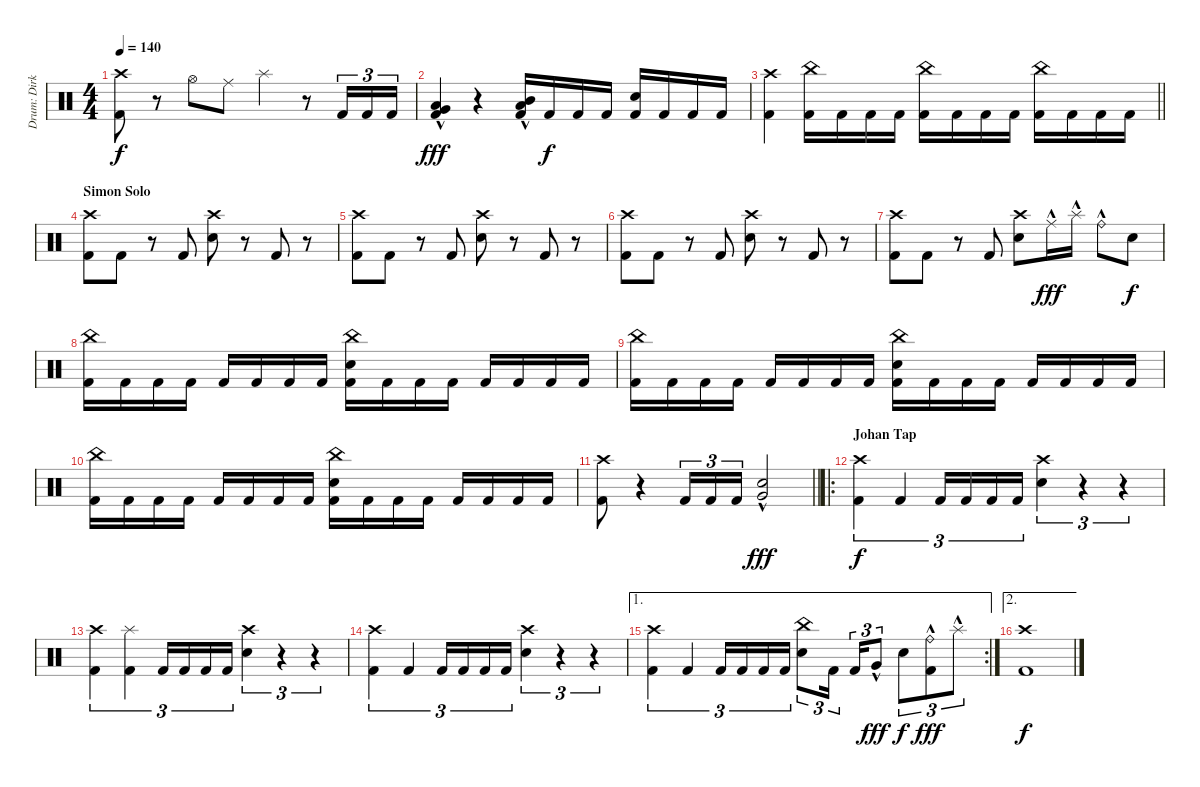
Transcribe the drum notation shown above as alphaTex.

\track ("Drum: Dirk" "Drum: Dirk") {instrument percussion}
\staff {score}
\articulation defaults
\ts (4 4)
\section ("" "")
\tempo 140
\clef neutral
\ks c
("Crash high (hit)" "Kick (hit) 2").8{dy f} r.8 "Hi-Hat (open)".8 "Ride (middle)".8 "Splash (hit)".4 r.8 "Kick (hit) 2".16{tu (3 2)} "Kick (hit) 2".16{tu (3 2)} "Kick (hit) 2".16{tu (3 2)} |
("Low Floor Tom (hit)"{hac} "Very Low Tom (hit)"{hac} "Kick (hit) 2").4{dy fff} r.4 ("Mid Tom (hit)"{hac} "Low Tom (hit)"{hac} "Kick (hit) 2").16 "Kick (hit) 2".16{dy f} "Kick (hit) 2".16 "Kick (hit) 2".16 ("Electric Snare (hit)" "Kick (hit) 2").16 "Kick (hit) 2".16 "Kick (hit) 2".16 "Kick (hit) 2".16 |
\barLineRight lightlight
("Crash high (hit)" "Kick (hit) 2").4 ("China (hit)" "Kick (hit) 2").16 "Kick (hit) 2".16 "Kick (hit) 2".16 "Kick (hit) 2".16 ("China (hit)" "Kick (hit) 2").16 "Kick (hit) 2".16 "Kick (hit) 2".16 "Kick (hit) 2".16 ("China (hit)" "Kick (hit) 2").16 "Kick (hit) 2".16 "Kick (hit) 2".16 "Kick (hit) 2".16 |
\section ("" "Simon Solo")
("Crash high (hit)" "Kick (hit) 2").8 "Kick (hit) 2".8 r.8 "Kick (hit) 2".8 ("Crash high (hit)" "Electric Snare (hit)").8 r.8 "Kick (hit) 2".8 r.8 |
("Crash high (hit)" "Kick (hit) 2").8 "Kick (hit) 2".8 r.8 "Kick (hit) 2".8 ("Crash high (hit)" "Electric Snare (hit)").8 r.8 "Kick (hit) 2".8 r.8 |
("Crash high (hit)" "Kick (hit) 2").8 "Kick (hit) 2".8 r.8 "Kick (hit) 2".8 ("Crash high (hit)" "Electric Snare (hit)").8 r.8 "Kick (hit) 2".8 r.8 |
("Crash high (hit)" "Kick (hit) 2").8 "Kick (hit) 2".8 r.8 "Kick (hit) 2".8 ("Crash high (hit)" "Electric Snare (hit)").8 "Ride (middle)"{hac}.16{dy fff} "Splash (hit)"{hac}.16 "Ride (bell)"{hac}.8 "Electric Snare (hit)".8{dy f} |
("China (hit)" "Kick (hit) 2").16 "Kick (hit) 2".16 "Kick (hit) 2".16 "Kick (hit) 2".16 "Kick (hit) 2".16 "Kick (hit) 2".16 "Kick (hit) 2".16 "Kick (hit) 2".16 ("China (hit)" "Electric Snare (hit)" "Kick (hit) 2").16 "Kick (hit) 2".16 "Kick (hit) 2".16 "Kick (hit) 2".16 "Kick (hit) 2".16 "Kick (hit) 2".16 "Kick (hit) 2".16 "Kick (hit) 2".16 |
("China (hit)" "Kick (hit) 2").16 "Kick (hit) 2".16 "Kick (hit) 2".16 "Kick (hit) 2".16 "Kick (hit) 2".16 "Kick (hit) 2".16 "Kick (hit) 2".16 "Kick (hit) 2".16 ("China (hit)" "Electric Snare (hit)" "Kick (hit) 2").16 "Kick (hit) 2".16 "Kick (hit) 2".16 "Kick (hit) 2".16 "Kick (hit) 2".16 "Kick (hit) 2".16 "Kick (hit) 2".16 "Kick (hit) 2".16 |
("China (hit)" "Kick (hit) 2").16 "Kick (hit) 2".16 "Kick (hit) 2".16 "Kick (hit) 2".16 "Kick (hit) 2".16 "Kick (hit) 2".16 "Kick (hit) 2".16 "Kick (hit) 2".16 ("China (hit)" "Electric Snare (hit)" "Kick (hit) 2").16 "Kick (hit) 2".16 "Kick (hit) 2".16 "Kick (hit) 2".16 "Kick (hit) 2".16 "Kick (hit) 2".16 "Kick (hit) 2".16 "Kick (hit) 2".16 |
\barLineRight lightlight
("Crash high (hit)" "Kick (hit) 2").8 r.4 "Kick (hit) 2".16{tu (3 2)} "Kick (hit) 2".16{tu (3 2)} "Kick (hit) 2".16{tu (3 2)} ("Electric Snare (hit)" "Very Low Tom (hit)"{hac}).2{dy fff} |
\ro
\section ("" "Johan Tap")
("Crash high (hit)" "Kick (hit) 2").4{tu (3 2) dy f} "Kick (hit) 2".4{tu (3 2)} "Kick (hit) 2".16{tu (3 2)} "Kick (hit) 2".16{tu (3 2)} "Kick (hit) 2".16{tu (3 2)} "Kick (hit) 2".16{tu (3 2)} ("Crash high (hit)" "Electric Snare (hit)").4{tu (3 2)} r.4{tu (3 2)} r.4{tu (3 2)} |
("Crash high (hit)" "Kick (hit) 2").4{tu (3 2)} ("Splash (hit)" "Kick (hit) 2").4{tu (3 2)} "Kick (hit) 2".16{tu (3 2)} "Kick (hit) 2".16{tu (3 2)} "Kick (hit) 2".16{tu (3 2)} "Kick (hit) 2".16{tu (3 2)} ("Crash high (hit)" "Electric Snare (hit)").4{tu (3 2)} r.4{tu (3 2)} r.4{tu (3 2)} |
("Crash high (hit)" "Kick (hit) 2").4{tu (3 2)} "Kick (hit) 2".4{tu (3 2)} "Kick (hit) 2".16{tu (3 2)} "Kick (hit) 2".16{tu (3 2)} "Kick (hit) 2".16{tu (3 2)} "Kick (hit) 2".16{tu (3 2)} ("Crash high (hit)" "Electric Snare (hit)").4{tu (3 2)} r.4{tu (3 2)} r.4{tu (3 2)} |
\ae 1
\rc 2
("Crash high (hit)" "Kick (hit) 2").4{tu (3 2)} "Kick (hit) 2".4{tu (3 2)} "Kick (hit) 2".16{tu (3 2)} "Kick (hit) 2".16{tu (3 2)} "Kick (hit) 2".16{tu (3 2)} "Kick (hit) 2".16{tu (3 2)} ("China (hit)" "Electric Snare (hit)").8{tu (3 2)} "Kick (hit) 2".16{tu (3 2) beam splitsecondary} "Kick (hit) 2".16{tu (3 2)} "Very Low Tom (hit)"{hac}.8{tu (3 2) dy fff} "Electric Snare (hit)".8{tu (3 2) dy f} ("Ride (bell)"{hac} "Kick (hit) 2").8{tu (3 2) dy fff} "Splash (hit)"{hac}.8{tu (3 2)} |
\ae 2
("Crash high (hit)" "Kick (hit) 2").1{dy f}
